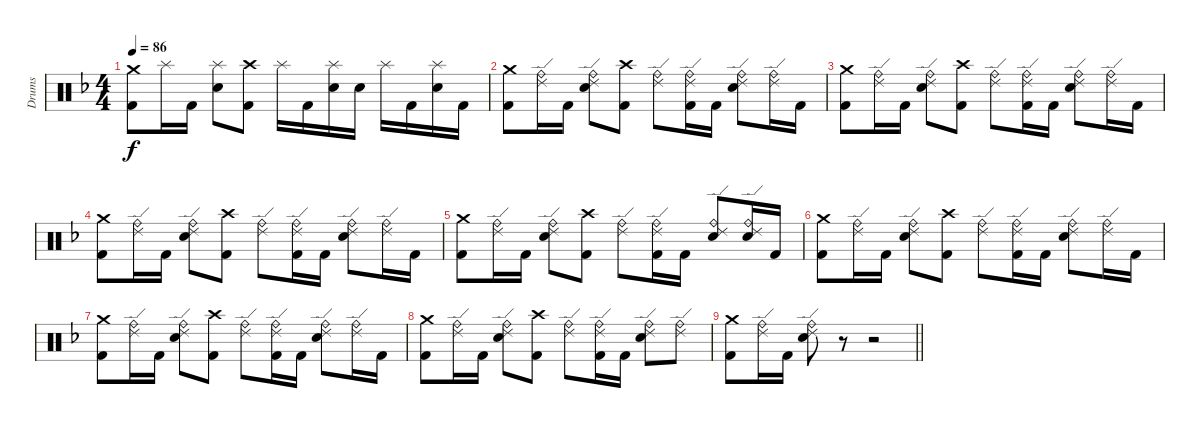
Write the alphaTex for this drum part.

\track ("Drums" "Drums") {instrument percussion}
\staff {score}
\articulation defaults
\ts (4 4)
\tempo 86
\clef neutral
\ks dminor
("Crash medium (hit)" "Kick (hit) 2").8{dy f} "Splash (hit)".16 "Kick (hit) 2".16 ("Splash (hit)" "Snare (hit) 2").8 ("Crash high (hit)" "Kick (hit) 2").8 "Splash (hit)".16 "Kick (hit) 2".16 ("Splash (hit)" "Snare (hit) 2").16 "Snare (hit) 2".16 "Splash (hit)".16 "Kick (hit) 2".16 ("Splash (hit)" "Snare (hit) 2").16 "Kick (hit) 2".16 |
("Crash medium (hit)" "Kick (hit) 2").8 ("Ride (bell)" "Ride (edge) 2").16 "Kick (hit) 2".16 ("Ride (bell)" "Ride (edge) 2" "Snare (hit) 2").8 ("Crash high (hit)" "Kick (hit) 2").8 ("Ride (bell)" "Ride (edge) 2").8 ("Ride (bell)" "Ride (edge) 2" "Kick (hit) 2").16 "Kick (hit) 2".16 ("Ride (bell)" "Ride (edge) 2" "Snare (hit) 2").8 ("Ride (bell)" "Ride (edge) 2").16 "Kick (hit) 2".16 |
("Crash medium (hit)" "Kick (hit) 2").8 ("Ride (bell)" "Ride (edge) 2").16 "Kick (hit) 2".16 ("Ride (bell)" "Ride (edge) 2" "Snare (hit) 2").8 ("Crash high (hit)" "Kick (hit) 2").8 ("Ride (bell)" "Ride (edge) 2").8 ("Ride (bell)" "Ride (edge) 2" "Kick (hit) 2").16 "Kick (hit) 2".16 ("Ride (bell)" "Ride (edge) 2" "Snare (hit) 2").8 ("Ride (bell)" "Ride (edge) 2").16 "Kick (hit) 2".16 |
("Crash medium (hit)" "Kick (hit) 2").8 ("Ride (bell)" "Ride (edge) 2").16 "Kick (hit) 2".16 ("Ride (bell)" "Ride (edge) 2" "Snare (hit) 2").8 ("Crash high (hit)" "Kick (hit) 2").8 ("Ride (bell)" "Ride (edge) 2").8 ("Ride (bell)" "Ride (edge) 2" "Kick (hit) 2").16 "Kick (hit) 2".16 ("Ride (bell)" "Ride (edge) 2" "Snare (hit) 2").8 ("Ride (bell)" "Ride (edge) 2").16 "Kick (hit) 2".16 |
("Crash medium (hit)" "Kick (hit) 2").8 ("Ride (bell)" "Ride (edge) 2").16 "Kick (hit) 2".16 ("Ride (bell)" "Ride (edge) 2" "Snare (hit) 2").8 ("Crash high (hit)" "Kick (hit) 2").8 ("Ride (bell)" "Ride (edge) 2").8 ("Ride (bell)" "Ride (edge) 2" "Kick (hit) 2").16 "Kick (hit) 2".16 ("Ride (bell)" "Ride (edge) 2" "Snare (hit) 2").8 ("Ride (bell)" "Ride (edge) 2" "Snare (hit) 2").16 "Kick (hit) 2".16 |
("Crash medium (hit)" "Kick (hit) 2").8 ("Ride (bell)" "Ride (edge) 2").16 "Kick (hit) 2".16 ("Ride (bell)" "Ride (edge) 2" "Snare (hit) 2").8 ("Crash high (hit)" "Kick (hit) 2").8 ("Ride (bell)" "Ride (edge) 2").8 ("Ride (bell)" "Ride (edge) 2" "Kick (hit) 2").16 "Kick (hit) 2".16 ("Ride (bell)" "Ride (edge) 2" "Snare (hit) 2").8 ("Ride (bell)" "Ride (edge) 2").16 "Kick (hit) 2".16 |
("Crash medium (hit)" "Kick (hit) 2").8 ("Ride (bell)" "Ride (edge) 2").16 "Kick (hit) 2".16 ("Ride (bell)" "Ride (edge) 2" "Snare (hit) 2").8 ("Crash high (hit)" "Kick (hit) 2").8 ("Ride (bell)" "Ride (edge) 2").8 ("Ride (bell)" "Ride (edge) 2" "Kick (hit) 2").16 "Kick (hit) 2".16 ("Ride (bell)" "Ride (edge) 2" "Snare (hit) 2").8 ("Ride (bell)" "Ride (edge) 2").16 "Kick (hit) 2".16 |
("Crash medium (hit)" "Kick (hit) 2").8 ("Ride (bell)" "Ride (edge) 2").16 "Kick (hit) 2".16 ("Ride (bell)" "Ride (edge) 2" "Snare (hit) 2").8 ("Crash high (hit)" "Kick (hit) 2").8 ("Ride (bell)" "Ride (edge) 2").8 ("Ride (bell)" "Ride (edge) 2" "Kick (hit) 2").16 "Kick (hit) 2".16 ("Ride (bell)" "Ride (edge) 2" "Snare (hit) 2").8 ("Ride (bell)" "Ride (edge) 2").8 |
\barLineRight lightlight
("Crash medium (hit)" "Kick (hit) 2").8 ("Ride (bell)" "Ride (edge) 2").16 "Kick (hit) 2".16 ("Ride (bell)" "Ride (edge) 2" "Snare (hit) 2").8 r.8 r.2
